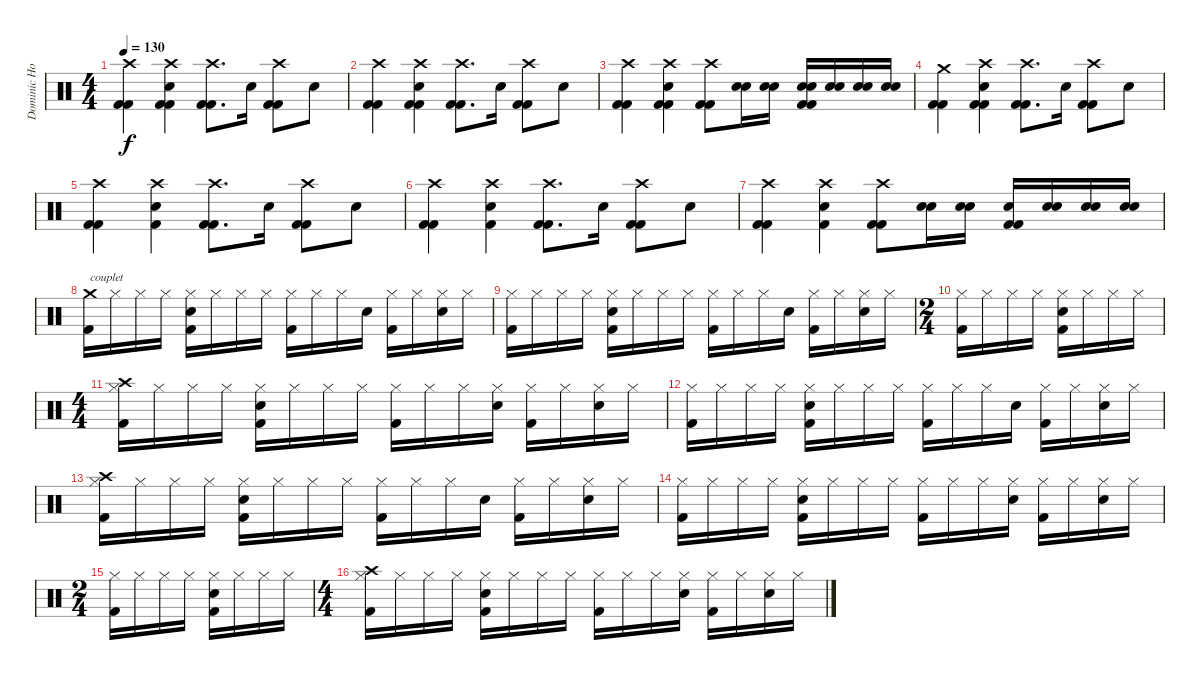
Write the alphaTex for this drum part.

\track ("Dominic Howard" "Dominic Ho") {instrument percussion}
\staff {score}
\articulation defaults
\ts (4 4)
\tempo 130
\clef neutral
\ks c
("Crash high (hit)" "Kick (hit) 2" "Kick (hit) 2").4{dy f} ("Kick (hit) 2" "Crash high (hit)" "Electric Snare (hit)" "Kick (hit) 2").4 ("Crash high (hit)" "Kick (hit) 2" "Kick (hit) 2").8{d} "Electric Snare (hit)".16 ("Crash high (hit)" "Kick (hit) 2" "Kick (hit) 2").8 "Electric Snare (hit)".8 |
("Crash high (hit)" "Kick (hit) 2" "Kick (hit) 2").4 ("Kick (hit) 2" "Crash high (hit)" "Electric Snare (hit)" "Kick (hit) 2").4 ("Crash high (hit)" "Kick (hit) 2" "Kick (hit) 2").8{d} "Electric Snare (hit)".16 ("Crash high (hit)" "Kick (hit) 2" "Kick (hit) 2").8 "Electric Snare (hit)".8 |
("Crash high (hit)" "Kick (hit) 2" "Kick (hit) 2").4 ("Kick (hit) 2" "Crash high (hit)" "Electric Snare (hit)" "Kick (hit) 2").4 ("Crash high (hit)" "Kick (hit) 2" "Kick (hit) 2").8 ("Electric Snare (hit)" "Electric Snare (hit)").16 ("Electric Snare (hit)" "Electric Snare (hit)").16 ("Electric Snare (hit)" "Kick (hit) 2" "Electric Snare (hit)" "Kick (hit) 2").16 ("Electric Snare (hit)" "Electric Snare (hit)").16 ("Electric Snare (hit)" "Electric Snare (hit)").16 ("Electric Snare (hit)" "Electric Snare (hit)").16 |
("Crash medium (hit)" "Kick (hit) 2" "Kick (hit) 2").4 ("Kick (hit) 2" "Crash high (hit)" "Electric Snare (hit)" "Kick (hit) 2").4 ("Crash high (hit)" "Kick (hit) 2" "Kick (hit) 2").8{d} "Electric Snare (hit)".16 ("Crash high (hit)" "Kick (hit) 2" "Kick (hit) 2").8 "Electric Snare (hit)".8 |
("Crash high (hit)" "Kick (hit) 2" "Kick (hit) 2").4 ("Kick (hit) 2" "Crash high (hit)" "Electric Snare (hit)").4 ("Crash high (hit)" "Kick (hit) 2" "Kick (hit) 2").8{d} "Electric Snare (hit)".16 ("Crash high (hit)" "Kick (hit) 2" "Kick (hit) 2").8 "Electric Snare (hit)".8 |
("Crash high (hit)" "Kick (hit) 2" "Kick (hit) 2").4 ("Kick (hit) 2" "Crash high (hit)" "Electric Snare (hit)").4 ("Crash high (hit)" "Kick (hit) 2" "Kick (hit) 2").8{d} "Electric Snare (hit)".16 ("Crash high (hit)" "Kick (hit) 2" "Kick (hit) 2").8 "Electric Snare (hit)".8 |
("Crash high (hit)" "Kick (hit) 2" "Kick (hit) 2").4 ("Kick (hit) 2" "Crash high (hit)" "Electric Snare (hit)").4 ("Crash high (hit)" "Kick (hit) 2" "Kick (hit) 2").8 ("Electric Snare (hit)" "Electric Snare (hit)").16 ("Electric Snare (hit)" "Electric Snare (hit)").16 ("Kick (hit) 2" "Electric Snare (hit)" "Kick (hit) 2").16 ("Electric Snare (hit)" "Electric Snare (hit)").16 ("Electric Snare (hit)" "Electric Snare (hit)").16 ("Electric Snare (hit)" "Electric Snare (hit)").16 |
("Crash medium (hit)" "Kick (hit) 2").16{txt "couplet"} "Hi-Hat (closed)".16 "Hi-Hat (closed)".16 "Hi-Hat (closed)".16 ("Hi-Hat (closed)" "Kick (hit) 2" "Electric Snare (hit)").16 "Hi-Hat (closed)".16 "Hi-Hat (closed)".16 "Hi-Hat (closed)".16 ("Hi-Hat (closed)" "Kick (hit) 2").16 "Hi-Hat (closed)".16 "Hi-Hat (closed)".16 "Electric Snare (hit)".16 ("Hi-Hat (closed)" "Kick (hit) 2").16 "Hi-Hat (closed)".16 ("Hi-Hat (closed)" "Electric Snare (hit)").16 "Hi-Hat (closed)".16 |
("Hi-Hat (closed)" "Kick (hit) 2").16 "Hi-Hat (closed)".16 "Hi-Hat (closed)".16 "Hi-Hat (closed)".16 ("Hi-Hat (closed)" "Kick (hit) 2" "Electric Snare (hit)").16 "Hi-Hat (closed)".16 "Hi-Hat (closed)".16 "Hi-Hat (closed)".16 ("Hi-Hat (closed)" "Kick (hit) 2").16 "Hi-Hat (closed)".16 "Hi-Hat (closed)".16 "Electric Snare (hit)".16 ("Hi-Hat (closed)" "Kick (hit) 2").16 "Hi-Hat (closed)".16 ("Hi-Hat (closed)" "Electric Snare (hit)").16 "Hi-Hat (closed)".16 |
\ts (2 4)
("Hi-Hat (closed)" "Kick (hit) 2").16 "Hi-Hat (closed)".16 "Hi-Hat (closed)".16 "Hi-Hat (closed)".16 ("Hi-Hat (closed)" "Kick (hit) 2" "Electric Snare (hit)").16 "Hi-Hat (closed)".16 "Hi-Hat (closed)".16 "Hi-Hat (closed)".16 |
\ts (4 4)
("Crash high (hit)" "Hi-Hat (closed)" "Kick (hit) 2").16 "Hi-Hat (closed)".16 "Hi-Hat (closed)".16 "Hi-Hat (closed)".16 ("Hi-Hat (closed)" "Electric Snare (hit)" "Kick (hit) 2").16 "Hi-Hat (closed)".16 "Hi-Hat (closed)".16 "Hi-Hat (closed)".16 ("Hi-Hat (closed)" "Kick (hit) 2").16 "Hi-Hat (closed)".16 "Hi-Hat (closed)".16 ("Hi-Hat (closed)" "Electric Snare (hit)").16 ("Hi-Hat (closed)" "Kick (hit) 2").16 "Hi-Hat (closed)".16 ("Electric Snare (hit)" "Hi-Hat (closed)").16 "Hi-Hat (closed)".16 |
("Hi-Hat (closed)" "Kick (hit) 2").16 "Hi-Hat (closed)".16 "Hi-Hat (closed)".16 "Hi-Hat (closed)".16 ("Hi-Hat (closed)" "Electric Snare (hit)" "Kick (hit) 2").16 "Hi-Hat (closed)".16 "Hi-Hat (closed)".16 "Hi-Hat (closed)".16 ("Hi-Hat (closed)" "Kick (hit) 2").16 "Hi-Hat (closed)".16 "Hi-Hat (closed)".16 "Electric Snare (hit)".16 ("Hi-Hat (closed)" "Kick (hit) 2").16 "Hi-Hat (closed)".16 ("Hi-Hat (closed)" "Electric Snare (hit)").16 "Hi-Hat (closed)".16 |
("Crash high (hit)" "Hi-Hat (closed)" "Kick (hit) 2").16 "Hi-Hat (closed)".16 "Hi-Hat (closed)".16 "Hi-Hat (closed)".16 ("Hi-Hat (closed)" "Electric Snare (hit)" "Kick (hit) 2").16 "Hi-Hat (closed)".16 "Hi-Hat (closed)".16 "Hi-Hat (closed)".16 ("Hi-Hat (closed)" "Kick (hit) 2").16 "Hi-Hat (closed)".16 "Hi-Hat (closed)".16 "Electric Snare (hit)".16 ("Hi-Hat (closed)" "Kick (hit) 2").16 "Hi-Hat (closed)".16 ("Hi-Hat (closed)" "Electric Snare (hit)").16 "Hi-Hat (closed)".16 |
("Hi-Hat (closed)" "Kick (hit) 2").16 "Hi-Hat (closed)".16 "Hi-Hat (closed)".16 "Hi-Hat (closed)".16 ("Hi-Hat (closed)" "Kick (hit) 2" "Electric Snare (hit)").16 "Hi-Hat (closed)".16 "Hi-Hat (closed)".16 "Hi-Hat (closed)".16 ("Hi-Hat (closed)" "Kick (hit) 2").16 "Hi-Hat (closed)".16 "Hi-Hat (closed)".16 ("Hi-Hat (closed)" "Electric Snare (hit)").16 ("Hi-Hat (closed)" "Kick (hit) 2").16 "Hi-Hat (closed)".16 ("Hi-Hat (closed)" "Electric Snare (hit)").16 "Hi-Hat (closed)".16 |
\ts (2 4)
("Hi-Hat (closed)" "Kick (hit) 2").16 "Hi-Hat (closed)".16 "Hi-Hat (closed)".16 "Hi-Hat (closed)".16 ("Hi-Hat (closed)" "Kick (hit) 2" "Electric Snare (hit)").16 "Hi-Hat (closed)".16 "Hi-Hat (closed)".16 "Hi-Hat (closed)".16 |
\ts (4 4)
("Crash high (hit)" "Hi-Hat (closed)" "Kick (hit) 2").16 "Hi-Hat (closed)".16 "Hi-Hat (closed)".16 "Hi-Hat (closed)".16 ("Hi-Hat (closed)" "Electric Snare (hit)" "Kick (hit) 2").16 "Hi-Hat (closed)".16 "Hi-Hat (closed)".16 "Hi-Hat (closed)".16 ("Hi-Hat (closed)" "Kick (hit) 2").16 "Hi-Hat (closed)".16 "Hi-Hat (closed)".16 ("Hi-Hat (closed)" "Electric Snare (hit)").16 ("Hi-Hat (closed)" "Kick (hit) 2").16 "Hi-Hat (closed)".16 ("Electric Snare (hit)" "Hi-Hat (closed)").16 "Hi-Hat (closed)".16
